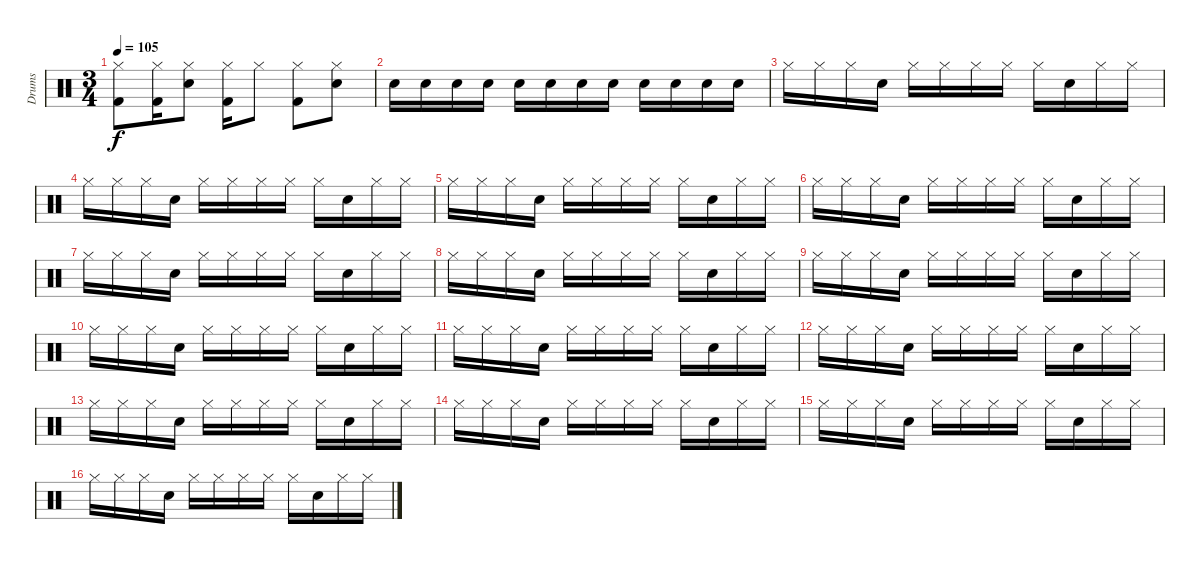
\track ("Drums" "Drums") {instrument percussion}
\staff {score}
\articulation defaults
\ts (3 4)
\tempo 105
\clef neutral
\ks c
("Hi-Hat (closed)" "Kick (hit) 2").8{dy f} ("Hi-Hat (closed)" "Kick (hit) 2").16 ("Hi-Hat (closed)" "Snare (hit) 2").8 ("Hi-Hat (closed)" "Kick (hit) 2").16 "Hi-Hat (closed)".8 ("Hi-Hat (closed)" "Kick (hit) 2").8 ("Hi-Hat (closed)" "Snare (hit) 2").8 |
"Snare (hit) 2".16 "Snare (hit) 2".16 "Snare (hit) 2".16 "Snare (hit) 2".16 "Snare (hit) 2".16 "Snare (hit) 2".16 "Snare (hit) 2".16 "Snare (hit) 2".16 "Snare (hit) 2".16 "Snare (hit) 2".16 "Snare (hit) 2".16 "Snare (hit) 2".16 |
"Hi-Hat (closed)".16 "Hi-Hat (closed)".16 "Hi-Hat (closed)".16 "Snare (hit) 2".16 "Hi-Hat (closed)".16 "Hi-Hat (closed)".16 "Hi-Hat (closed)".16 "Hi-Hat (closed)".16 "Hi-Hat (closed)".16 "Snare (hit) 2".16 "Hi-Hat (closed)".16 "Hi-Hat (closed)".16 |
"Hi-Hat (closed)".16 "Hi-Hat (closed)".16 "Hi-Hat (closed)".16 "Snare (hit) 2".16 "Hi-Hat (closed)".16 "Hi-Hat (closed)".16 "Hi-Hat (closed)".16 "Hi-Hat (closed)".16 "Hi-Hat (closed)".16 "Snare (hit) 2".16 "Hi-Hat (closed)".16 "Hi-Hat (closed)".16 |
"Hi-Hat (closed)".16 "Hi-Hat (closed)".16 "Hi-Hat (closed)".16 "Snare (hit) 2".16 "Hi-Hat (closed)".16 "Hi-Hat (closed)".16 "Hi-Hat (closed)".16 "Hi-Hat (closed)".16 "Hi-Hat (closed)".16 "Snare (hit) 2".16 "Hi-Hat (closed)".16 "Hi-Hat (closed)".16 |
"Hi-Hat (closed)".16 "Hi-Hat (closed)".16 "Hi-Hat (closed)".16 "Snare (hit) 2".16 "Hi-Hat (closed)".16 "Hi-Hat (closed)".16 "Hi-Hat (closed)".16 "Hi-Hat (closed)".16 "Hi-Hat (closed)".16 "Snare (hit) 2".16 "Hi-Hat (closed)".16 "Hi-Hat (closed)".16 |
"Hi-Hat (closed)".16 "Hi-Hat (closed)".16 "Hi-Hat (closed)".16 "Snare (hit) 2".16 "Hi-Hat (closed)".16 "Hi-Hat (closed)".16 "Hi-Hat (closed)".16 "Hi-Hat (closed)".16 "Hi-Hat (closed)".16 "Snare (hit) 2".16 "Hi-Hat (closed)".16 "Hi-Hat (closed)".16 |
"Hi-Hat (closed)".16 "Hi-Hat (closed)".16 "Hi-Hat (closed)".16 "Snare (hit) 2".16 "Hi-Hat (closed)".16 "Hi-Hat (closed)".16 "Hi-Hat (closed)".16 "Hi-Hat (closed)".16 "Hi-Hat (closed)".16 "Snare (hit) 2".16 "Hi-Hat (closed)".16 "Hi-Hat (closed)".16 |
"Hi-Hat (closed)".16 "Hi-Hat (closed)".16 "Hi-Hat (closed)".16 "Snare (hit) 2".16 "Hi-Hat (closed)".16 "Hi-Hat (closed)".16 "Hi-Hat (closed)".16 "Hi-Hat (closed)".16 "Hi-Hat (closed)".16 "Snare (hit) 2".16 "Hi-Hat (closed)".16 "Hi-Hat (closed)".16 |
"Hi-Hat (closed)".16 "Hi-Hat (closed)".16 "Hi-Hat (closed)".16 "Snare (hit) 2".16 "Hi-Hat (closed)".16 "Hi-Hat (closed)".16 "Hi-Hat (closed)".16 "Hi-Hat (closed)".16 "Hi-Hat (closed)".16 "Snare (hit) 2".16 "Hi-Hat (closed)".16 "Hi-Hat (closed)".16 |
"Hi-Hat (closed)".16 "Hi-Hat (closed)".16 "Hi-Hat (closed)".16 "Snare (hit) 2".16 "Hi-Hat (closed)".16 "Hi-Hat (closed)".16 "Hi-Hat (closed)".16 "Hi-Hat (closed)".16 "Hi-Hat (closed)".16 "Snare (hit) 2".16 "Hi-Hat (closed)".16 "Hi-Hat (closed)".16 |
"Hi-Hat (closed)".16 "Hi-Hat (closed)".16 "Hi-Hat (closed)".16 "Snare (hit) 2".16 "Hi-Hat (closed)".16 "Hi-Hat (closed)".16 "Hi-Hat (closed)".16 "Hi-Hat (closed)".16 "Hi-Hat (closed)".16 "Snare (hit) 2".16 "Hi-Hat (closed)".16 "Hi-Hat (closed)".16 |
"Hi-Hat (closed)".16 "Hi-Hat (closed)".16 "Hi-Hat (closed)".16 "Snare (hit) 2".16 "Hi-Hat (closed)".16 "Hi-Hat (closed)".16 "Hi-Hat (closed)".16 "Hi-Hat (closed)".16 "Hi-Hat (closed)".16 "Snare (hit) 2".16 "Hi-Hat (closed)".16 "Hi-Hat (closed)".16 |
"Hi-Hat (closed)".16 "Hi-Hat (closed)".16 "Hi-Hat (closed)".16 "Snare (hit) 2".16 "Hi-Hat (closed)".16 "Hi-Hat (closed)".16 "Hi-Hat (closed)".16 "Hi-Hat (closed)".16 "Hi-Hat (closed)".16 "Snare (hit) 2".16 "Hi-Hat (closed)".16 "Hi-Hat (closed)".16 |
"Hi-Hat (closed)".16 "Hi-Hat (closed)".16 "Hi-Hat (closed)".16 "Snare (hit) 2".16 "Hi-Hat (closed)".16 "Hi-Hat (closed)".16 "Hi-Hat (closed)".16 "Hi-Hat (closed)".16 "Hi-Hat (closed)".16 "Snare (hit) 2".16 "Hi-Hat (closed)".16 "Hi-Hat (closed)".16 |
"Hi-Hat (closed)".16 "Hi-Hat (closed)".16 "Hi-Hat (closed)".16 "Snare (hit) 2".16 "Hi-Hat (closed)".16 "Hi-Hat (closed)".16 "Hi-Hat (closed)".16 "Hi-Hat (closed)".16 "Hi-Hat (closed)".16 "Snare (hit) 2".16 "Hi-Hat (closed)".16 "Hi-Hat (closed)".16
